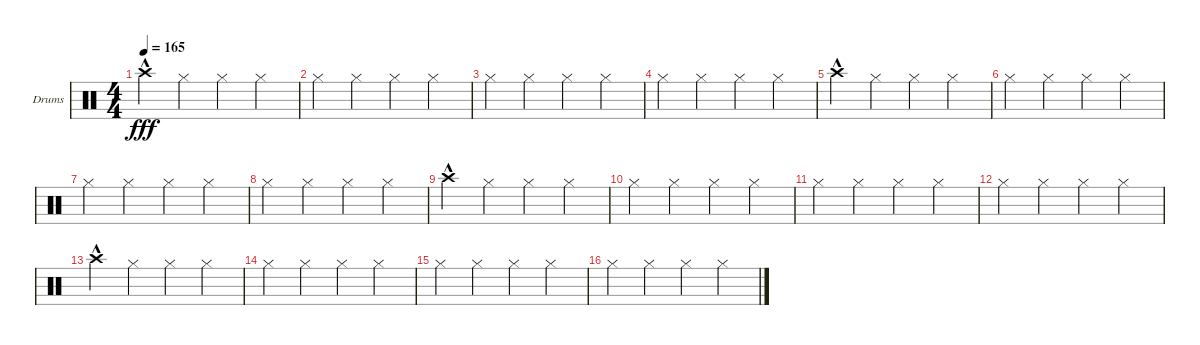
\defaultSystemsLayout 4
\bracketExtendMode groupsimilarinstruments
\firstSystemTrackNameOrientation horizontal
\otherSystemsTrackNameOrientation horizontal
\track ("Helders" "Drums") {instrument percussion}
\staff {score}
\articulation defaults
\ts (4 4)
\tempo 165
\clef neutral
\ks c "Crash high (hit)"{hac}.4{dy fff} "Hi-Hat (closed)".4 "Hi-Hat (closed)".4 "Hi-Hat (closed)".4
|
"Hi-Hat (closed)".4 "Hi-Hat (closed)".4 "Hi-Hat (closed)".4 "Hi-Hat (closed)".4 |
"Hi-Hat (closed)".4 "Hi-Hat (closed)".4 "Hi-Hat (closed)".4 "Hi-Hat (closed)".4 |
"Hi-Hat (closed)".4 "Hi-Hat (closed)".4 "Hi-Hat (closed)".4 "Hi-Hat (closed)".4 |
"Crash high (hit)"{hac}.4 "Hi-Hat (closed)".4 "Hi-Hat (closed)".4 "Hi-Hat (closed)".4 |
"Hi-Hat (closed)".4 "Hi-Hat (closed)".4 "Hi-Hat (closed)".4 "Hi-Hat (closed)".4 |
"Hi-Hat (closed)".4 "Hi-Hat (closed)".4 "Hi-Hat (closed)".4 "Hi-Hat (closed)".4 |
"Hi-Hat (closed)".4 "Hi-Hat (closed)".4 "Hi-Hat (closed)".4 "Hi-Hat (closed)".4 |
"Crash high (hit)"{hac}.4 "Hi-Hat (closed)".4 "Hi-Hat (closed)".4 "Hi-Hat (closed)".4 |
"Hi-Hat (closed)".4 "Hi-Hat (closed)".4 "Hi-Hat (closed)".4 "Hi-Hat (closed)".4 |
"Hi-Hat (closed)".4 "Hi-Hat (closed)".4 "Hi-Hat (closed)".4 "Hi-Hat (closed)".4 |
"Hi-Hat (closed)".4 "Hi-Hat (closed)".4 "Hi-Hat (closed)".4 "Hi-Hat (closed)".4 |
"Crash high (hit)"{hac}.4 "Hi-Hat (closed)".4 "Hi-Hat (closed)".4 "Hi-Hat (closed)".4 |
"Hi-Hat (closed)".4 "Hi-Hat (closed)".4 "Hi-Hat (closed)".4 "Hi-Hat (closed)".4 |
"Hi-Hat (closed)".4 "Hi-Hat (closed)".4 "Hi-Hat (closed)".4 "Hi-Hat (closed)".4 |
"Hi-Hat (closed)".4 "Hi-Hat (closed)".4 "Hi-Hat (closed)".4 "Hi-Hat (closed)".4
